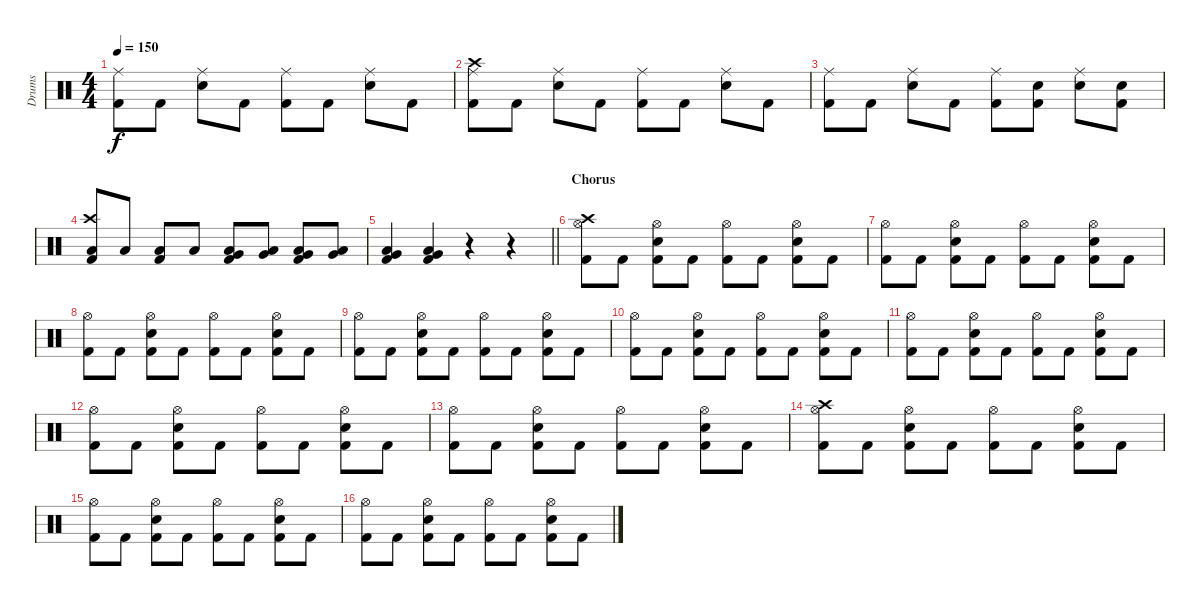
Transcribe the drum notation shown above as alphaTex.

\track ("Drums" "Drums") {instrument percussion}
\staff {score}
\articulation defaults
\ts (4 4)
\tempo 150
\clef neutral
\ks c
("Ride (middle)" "Kick (hit) 2").8{dy f} "Kick (hit) 2".8 ("Ride (middle)" "Snare (hit) 2").8 "Kick (hit) 2".8 ("Ride (middle)" "Kick (hit) 2").8 "Kick (hit) 2".8 ("Ride (middle)" "Snare (hit) 2").8 "Kick (hit) 2".8 |
("Crash high (hit)" "Ride (middle)" "Kick (hit) 2").8 "Kick (hit) 2".8 ("Ride (middle)" "Snare (hit) 2").8 "Kick (hit) 2".8 ("Ride (middle)" "Kick (hit) 2").8 "Kick (hit) 2".8 ("Ride (middle)" "Snare (hit) 2").8 "Kick (hit) 2".8 |
("Ride (middle)" "Kick (hit) 2").8 "Kick (hit) 2".8 ("Ride (middle)" "Snare (hit) 2").8 "Kick (hit) 2".8 ("Ride (middle)" "Kick (hit) 2").8 ("Snare (hit) 2" "Kick (hit) 2").8 ("Ride (middle)" "Snare (hit) 2").8 ("Snare (hit) 2" "Kick (hit) 2").8 |
("Crash high (hit)" "Low Floor Tom (hit)" "Kick (hit) 2").8 "Low Floor Tom (hit)".8 ("Low Floor Tom (hit)" "Kick (hit) 2").8 "Low Floor Tom (hit)".8 ("Very Low Tom (hit)" "Low Floor Tom (hit)" "Kick (hit) 2").8 ("Very Low Tom (hit)" "Low Floor Tom (hit)").8 ("Very Low Tom (hit)" "Low Floor Tom (hit)" "Kick (hit) 2").8 ("Very Low Tom (hit)" "Low Floor Tom (hit)").8 |
\barLineRight lightlight
("Very Low Tom (hit)" "Low Floor Tom (hit)" "Kick (hit) 2").4 ("Very Low Tom (hit)" "Low Floor Tom (hit)" "Kick (hit) 2").4 r.4 r.4 |
\section ("" "Chorus")
("Crash high (hit)" "Hi-Hat (open)" "Kick (hit) 2").8 "Kick (hit) 2".8 ("Hi-Hat (open)" "Snare (hit) 2" "Kick (hit) 2").8 "Kick (hit) 2".8 ("Hi-Hat (open)" "Kick (hit) 2").8 "Kick (hit) 2".8 ("Hi-Hat (open)" "Snare (hit) 2" "Kick (hit) 2").8 "Kick (hit) 2".8 |
("Hi-Hat (open)" "Kick (hit) 2").8 "Kick (hit) 2".8 ("Hi-Hat (open)" "Snare (hit) 2" "Kick (hit) 2").8 "Kick (hit) 2".8 ("Hi-Hat (open)" "Kick (hit) 2").8 "Kick (hit) 2".8 ("Hi-Hat (open)" "Snare (hit) 2" "Kick (hit) 2").8 "Kick (hit) 2".8 |
("Hi-Hat (open)" "Kick (hit) 2").8 "Kick (hit) 2".8 ("Hi-Hat (open)" "Snare (hit) 2" "Kick (hit) 2").8 "Kick (hit) 2".8 ("Hi-Hat (open)" "Kick (hit) 2").8 "Kick (hit) 2".8 ("Hi-Hat (open)" "Snare (hit) 2" "Kick (hit) 2").8 "Kick (hit) 2".8 |
("Hi-Hat (open)" "Kick (hit) 2").8 "Kick (hit) 2".8 ("Hi-Hat (open)" "Snare (hit) 2" "Kick (hit) 2").8 "Kick (hit) 2".8 ("Hi-Hat (open)" "Kick (hit) 2").8 "Kick (hit) 2".8 ("Hi-Hat (open)" "Snare (hit) 2" "Kick (hit) 2").8 "Kick (hit) 2".8 |
("Hi-Hat (open)" "Kick (hit) 2").8 "Kick (hit) 2".8 ("Hi-Hat (open)" "Snare (hit) 2" "Kick (hit) 2").8 "Kick (hit) 2".8 ("Hi-Hat (open)" "Kick (hit) 2").8 "Kick (hit) 2".8 ("Hi-Hat (open)" "Snare (hit) 2" "Kick (hit) 2").8 "Kick (hit) 2".8 |
("Hi-Hat (open)" "Kick (hit) 2").8 "Kick (hit) 2".8 ("Hi-Hat (open)" "Snare (hit) 2" "Kick (hit) 2").8 "Kick (hit) 2".8 ("Hi-Hat (open)" "Kick (hit) 2").8 "Kick (hit) 2".8 ("Hi-Hat (open)" "Snare (hit) 2" "Kick (hit) 2").8 "Kick (hit) 2".8 |
("Hi-Hat (open)" "Kick (hit) 2").8 "Kick (hit) 2".8 ("Hi-Hat (open)" "Snare (hit) 2" "Kick (hit) 2").8 "Kick (hit) 2".8 ("Hi-Hat (open)" "Kick (hit) 2").8 "Kick (hit) 2".8 ("Hi-Hat (open)" "Snare (hit) 2" "Kick (hit) 2").8 "Kick (hit) 2".8 |
("Hi-Hat (open)" "Kick (hit) 2").8 "Kick (hit) 2".8 ("Hi-Hat (open)" "Snare (hit) 2" "Kick (hit) 2").8 "Kick (hit) 2".8 ("Hi-Hat (open)" "Kick (hit) 2").8 "Kick (hit) 2".8 ("Hi-Hat (open)" "Snare (hit) 2" "Kick (hit) 2").8 "Kick (hit) 2".8 |
("Crash high (hit)" "Hi-Hat (open)" "Kick (hit) 2").8 "Kick (hit) 2".8 ("Hi-Hat (open)" "Snare (hit) 2" "Kick (hit) 2").8 "Kick (hit) 2".8 ("Hi-Hat (open)" "Kick (hit) 2").8 "Kick (hit) 2".8 ("Hi-Hat (open)" "Snare (hit) 2" "Kick (hit) 2").8 "Kick (hit) 2".8 |
("Hi-Hat (open)" "Kick (hit) 2").8 "Kick (hit) 2".8 ("Hi-Hat (open)" "Snare (hit) 2" "Kick (hit) 2").8 "Kick (hit) 2".8 ("Hi-Hat (open)" "Kick (hit) 2").8 "Kick (hit) 2".8 ("Hi-Hat (open)" "Snare (hit) 2" "Kick (hit) 2").8 "Kick (hit) 2".8 |
("Hi-Hat (open)" "Kick (hit) 2").8 "Kick (hit) 2".8 ("Hi-Hat (open)" "Snare (hit) 2" "Kick (hit) 2").8 "Kick (hit) 2".8 ("Hi-Hat (open)" "Kick (hit) 2").8 "Kick (hit) 2".8 ("Hi-Hat (open)" "Snare (hit) 2" "Kick (hit) 2").8 "Kick (hit) 2".8
